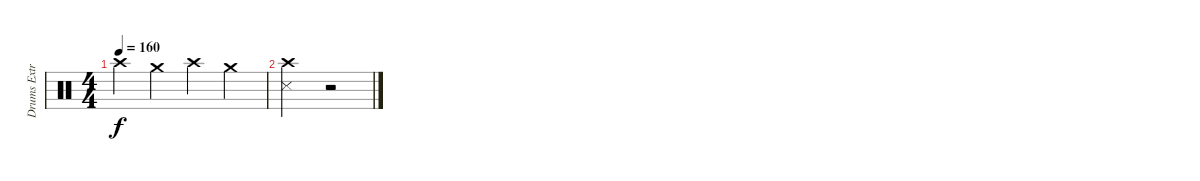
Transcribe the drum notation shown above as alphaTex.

\track ("Drums Extra" "Drums Extr") {instrument percussion}
\staff {score}
\articulation defaults
\ts (4 4)
\tempo 160
\clef neutral
\ks c "Crash high (hit)".4{dy f} "Crash medium (hit)".4 "Crash high (hit)".4 "Crash medium (hit)".4
|
("Crash high (hit)" "Metronome (hit)").2 r.2
